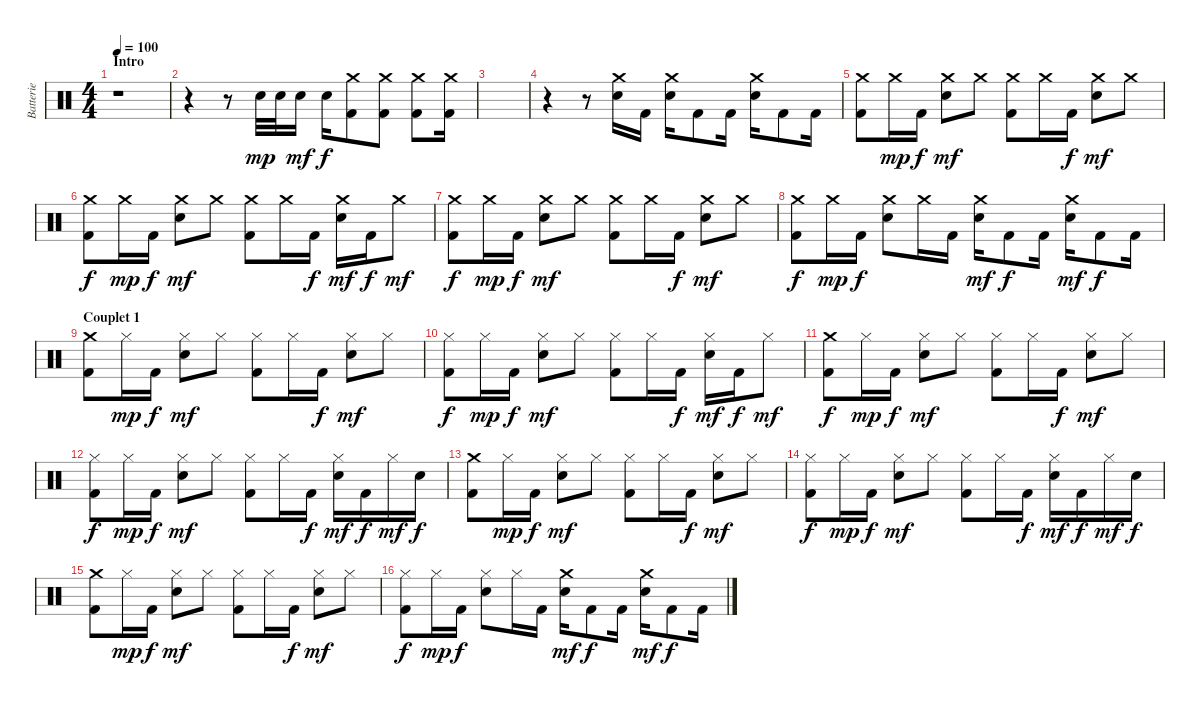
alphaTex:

\track ("Batterie" "Batterie") {instrument percussion}
\staff {score}
\articulation defaults
\ts (4 4)
\section ("" "Intro")
\tempo 100
\clef neutral
\ks c
r.1{dy mp} |
r.4 r.8 "Electric Snare (hit)".32 "Electric Snare (hit)".32 "Electric Snare (hit)".16{dy mf} "Electric Snare (hit)".16{dy f} ("Crash medium (hit)" "Kick (hit) 2").8 ("Crash medium (hit)" "Kick (hit) 2").8 ("Crash medium (hit)" "Kick (hit) 2").8 ("Crash medium (hit)" "Kick (hit) 2").16 |
|
r.4 r.8 ("Crash medium (hit)" "Electric Snare (hit)").16 "Kick (hit) 2".16 ("Crash medium (hit)" "Electric Snare (hit)").16 "Kick (hit) 2".8 "Kick (hit) 2".16 ("Crash medium (hit)" "Electric Snare (hit)").16 "Kick (hit) 2".8 "Kick (hit) 2".16 |
("Crash medium (hit)" "Kick (hit) 2").8 "Crash medium (hit)".16{dy mp} "Kick (hit) 2".16{dy f} ("Crash medium (hit)" "Electric Snare (hit)").8{dy mf} "Crash medium (hit)".8 ("Crash medium (hit)" "Kick (hit) 2").8 "Crash medium (hit)".16 "Kick (hit) 2".16{dy f} ("Crash medium (hit)" "Electric Snare (hit)").8{dy mf} "Crash medium (hit)".8 |
("Crash medium (hit)" "Kick (hit) 2").8{dy f} "Crash medium (hit)".16{dy mp} "Kick (hit) 2".16{dy f} ("Crash medium (hit)" "Electric Snare (hit)").8{dy mf} "Crash medium (hit)".8 ("Crash medium (hit)" "Kick (hit) 2").8 "Crash medium (hit)".16 "Kick (hit) 2".16{dy f} ("Crash medium (hit)" "Electric Snare (hit)").16{dy mf} "Kick (hit) 2".16{dy f} "Crash medium (hit)".8{dy mf} |
("Crash medium (hit)" "Kick (hit) 2").8{dy f} "Crash medium (hit)".16{dy mp} "Kick (hit) 2".16{dy f} ("Crash medium (hit)" "Electric Snare (hit)").8{dy mf} "Crash medium (hit)".8 ("Crash medium (hit)" "Kick (hit) 2").8 "Crash medium (hit)".16 "Kick (hit) 2".16{dy f} ("Crash medium (hit)" "Electric Snare (hit)").8{dy mf} "Crash medium (hit)".8 |
("Crash medium (hit)" "Kick (hit) 2").8{dy f} "Crash medium (hit)".16{dy mp} "Kick (hit) 2".16{dy f} ("Crash medium (hit)" "Electric Snare (hit)").8 "Crash medium (hit)".16 "Kick (hit) 2".16 ("Crash medium (hit)" "Electric Snare (hit)").16{dy mf} "Kick (hit) 2".8{dy f} "Kick (hit) 2".16 ("Crash medium (hit)" "Electric Snare (hit)").16{dy mf} "Kick (hit) 2".8{dy f} "Kick (hit) 2".16 |
\section ("" "Couplet 1")
("Crash medium (hit)" "Kick (hit) 2").8 "Hi-Hat (closed)".16{dy mp} "Kick (hit) 2".16{dy f} ("Hi-Hat (closed)" "Electric Snare (hit)").8{dy mf} "Hi-Hat (closed)".8 ("Hi-Hat (closed)" "Kick (hit) 2").8 "Hi-Hat (closed)".16 "Kick (hit) 2".16{dy f} ("Hi-Hat (closed)" "Electric Snare (hit)").8{dy mf} "Hi-Hat (closed)".8 |
("Hi-Hat (closed)" "Kick (hit) 2").8{dy f} "Hi-Hat (closed)".16{dy mp} "Kick (hit) 2".16{dy f} ("Hi-Hat (closed)" "Electric Snare (hit)").8{dy mf} "Hi-Hat (closed)".8 ("Hi-Hat (closed)" "Kick (hit) 2").8 "Hi-Hat (closed)".16 "Kick (hit) 2".16{dy f} ("Hi-Hat (closed)" "Electric Snare (hit)").16{dy mf} "Kick (hit) 2".16{dy f} "Hi-Hat (closed)".8{dy mf} |
("Crash medium (hit)" "Kick (hit) 2").8{dy f} "Hi-Hat (closed)".16{dy mp} "Kick (hit) 2".16{dy f} ("Hi-Hat (closed)" "Electric Snare (hit)").8{dy mf} "Hi-Hat (closed)".8 ("Hi-Hat (closed)" "Kick (hit) 2").8 "Hi-Hat (closed)".16 "Kick (hit) 2".16{dy f} ("Hi-Hat (closed)" "Electric Snare (hit)").8{dy mf} "Hi-Hat (closed)".8 |
("Hi-Hat (closed)" "Kick (hit) 2").8{dy f} "Hi-Hat (closed)".16{dy mp} "Kick (hit) 2".16{dy f} ("Hi-Hat (closed)" "Electric Snare (hit)").8{dy mf} "Hi-Hat (closed)".8 ("Hi-Hat (closed)" "Kick (hit) 2").8 "Hi-Hat (closed)".16 "Kick (hit) 2".16{dy f} ("Hi-Hat (closed)" "Electric Snare (hit)").16{dy mf} "Kick (hit) 2".16{dy f} "Hi-Hat (closed)".16{dy mf} "Electric Snare (hit)".16{dy f} |
("Crash medium (hit)" "Kick (hit) 2").8 "Hi-Hat (closed)".16{dy mp} "Kick (hit) 2".16{dy f} ("Hi-Hat (closed)" "Electric Snare (hit)").8{dy mf} "Hi-Hat (closed)".8 ("Hi-Hat (closed)" "Kick (hit) 2").8 "Hi-Hat (closed)".16 "Kick (hit) 2".16{dy f} ("Hi-Hat (closed)" "Electric Snare (hit)").8{dy mf} "Hi-Hat (closed)".8 |
("Hi-Hat (closed)" "Kick (hit) 2").8{dy f} "Hi-Hat (closed)".16{dy mp} "Kick (hit) 2".16{dy f} ("Hi-Hat (closed)" "Electric Snare (hit)").8{dy mf} "Hi-Hat (closed)".8 ("Hi-Hat (closed)" "Kick (hit) 2").8 "Hi-Hat (closed)".16 "Kick (hit) 2".16{dy f} ("Hi-Hat (closed)" "Electric Snare (hit)").16{dy mf} "Kick (hit) 2".16{dy f} "Hi-Hat (closed)".16{dy mf} "Electric Snare (hit)".16{dy f} |
("Crash medium (hit)" "Kick (hit) 2").8 "Hi-Hat (closed)".16{dy mp} "Kick (hit) 2".16{dy f} ("Hi-Hat (closed)" "Electric Snare (hit)").8{dy mf} "Hi-Hat (closed)".8 ("Hi-Hat (closed)" "Kick (hit) 2").8 "Hi-Hat (closed)".16 "Kick (hit) 2".16{dy f} ("Hi-Hat (closed)" "Electric Snare (hit)").8{dy mf} "Hi-Hat (closed)".8 |
("Hi-Hat (closed)" "Kick (hit) 2").8{dy f} "Hi-Hat (closed)".16{dy mp} "Kick (hit) 2".16{dy f} ("Hi-Hat (closed)" "Electric Snare (hit)").8 "Hi-Hat (closed)".16 "Kick (hit) 2".16 ("Crash medium (hit)" "Electric Snare (hit)").16{dy mf} "Kick (hit) 2".8{dy f} "Kick (hit) 2".16 ("Crash medium (hit)" "Electric Snare (hit)").16{dy mf} "Kick (hit) 2".8{dy f} "Kick (hit) 2".16
